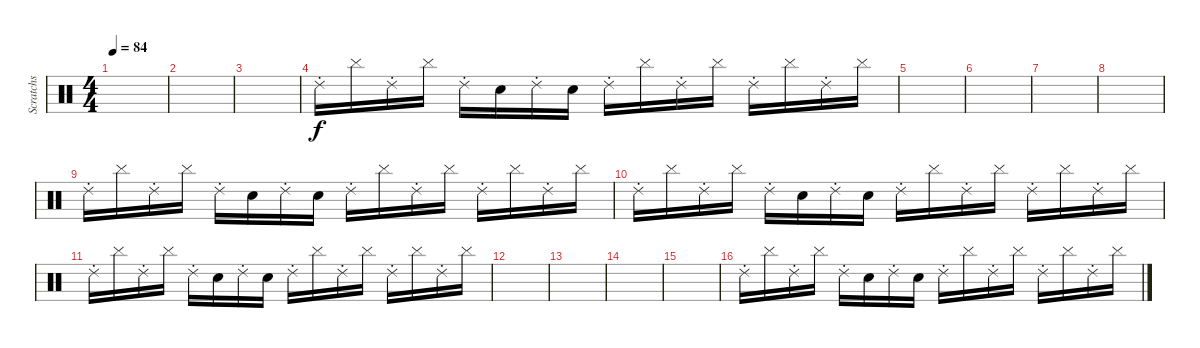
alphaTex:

\track ("Scratchs" "Scratchs") {instrument percussion}
\staff {score}
\articulation defaults
\ts (4 4)
\tempo 84
\clef neutral
\ks c
|
|
|
"Ride (choke) 2".16 "Cymbal (hit)".16 "Ride (choke) 2".16 "Cymbal (hit)".16 "Ride (choke) 2".16 "Snare (hit)".16 "Ride (choke) 2".16 "Snare (hit)".16 "Ride (choke) 2".16 "Cymbal (hit)".16 "Ride (choke) 2".16 "Cymbal (hit)".16 "Ride (choke) 2".16 "Cymbal (hit)".16 "Ride (choke) 2".16 "Cymbal (hit)".16 |
|
|
|
|
"Ride (choke) 2".16 "Cymbal (hit)".16 "Ride (choke) 2".16 "Cymbal (hit)".16 "Ride (choke) 2".16 "Snare (hit)".16 "Ride (choke) 2".16 "Snare (hit)".16 "Ride (choke) 2".16 "Cymbal (hit)".16 "Ride (choke) 2".16 "Cymbal (hit)".16 "Ride (choke) 2".16 "Cymbal (hit)".16 "Ride (choke) 2".16 "Cymbal (hit)".16 |
"Ride (choke) 2".16 "Cymbal (hit)".16 "Ride (choke) 2".16 "Cymbal (hit)".16 "Ride (choke) 2".16 "Snare (hit)".16 "Ride (choke) 2".16 "Snare (hit)".16 "Ride (choke) 2".16 "Cymbal (hit)".16 "Ride (choke) 2".16 "Cymbal (hit)".16 "Ride (choke) 2".16 "Cymbal (hit)".16 "Ride (choke) 2".16 "Cymbal (hit)".16 |
"Ride (choke) 2".16 "Cymbal (hit)".16 "Ride (choke) 2".16 "Cymbal (hit)".16 "Ride (choke) 2".16 "Snare (hit)".16 "Ride (choke) 2".16 "Snare (hit)".16 "Ride (choke) 2".16 "Cymbal (hit)".16 "Ride (choke) 2".16 "Cymbal (hit)".16 "Ride (choke) 2".16 "Cymbal (hit)".16 "Ride (choke) 2".16 "Cymbal (hit)".16 |
|
|
|
|
"Ride (choke) 2".16 "Cymbal (hit)".16 "Ride (choke) 2".16 "Cymbal (hit)".16 "Ride (choke) 2".16 "Snare (hit)".16 "Ride (choke) 2".16 "Snare (hit)".16 "Ride (choke) 2".16 "Cymbal (hit)".16 "Ride (choke) 2".16 "Cymbal (hit)".16 "Ride (choke) 2".16 "Cymbal (hit)".16 "Ride (choke) 2".16 "Cymbal (hit)".16
